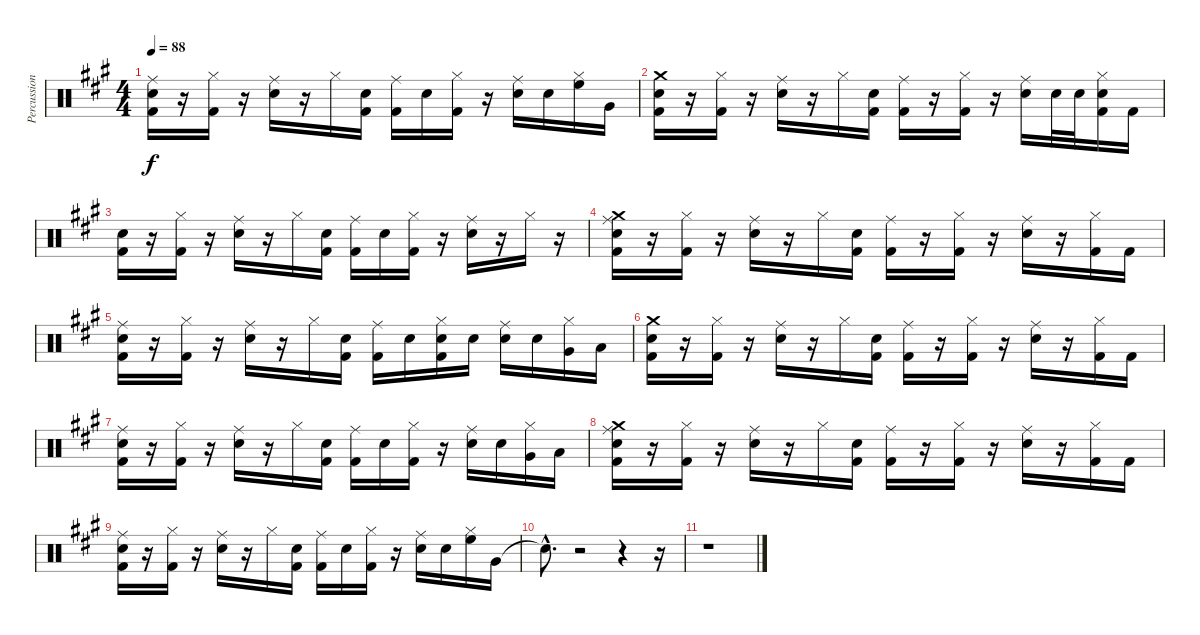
\track ("Percussion" "Percussion") {instrument percussion}
\staff {score}
\articulation defaults
\ts (4 4)
\tempo 88
\clef neutral
\ks f#minor
("Ride (middle)" "Kick (hit) 2" "Snare (hit) 2").16{dy f} r.16 ("Hi-Hat (closed)" "Kick (hit) 2").16 r.16 ("Ride (middle)" "Snare (hit) 2").16 r.16 "Hi-Hat (closed)".16 ("Snare (hit) 2" "Kick (hit) 2").16 ("Ride (middle)" "Kick (hit) 2").16 "Snare (hit) 2".16 ("Hi-Hat (closed)" "Kick (hit) 2").16 r.16 ("Snare (hit) 2" "Ride (middle)").16 "Snare (hit) 2".16 ("High Floor Tom (hit)" "Hi-Hat (closed)").16 "Very Low Tom (hit)".16 |
("Crash medium (hit)" "Snare (hit) 2" "Kick (hit) 2").16 r.16 ("Kick (hit) 2" "Hi-Hat (closed)").16 r.16 ("Ride (middle)" "Snare (hit) 2").16 r.16 "Hi-Hat (closed)".16 ("Snare (hit) 2" "Kick (hit) 2").16 ("Ride (middle)" "Kick (hit) 2").16 r.16 ("Hi-Hat (closed)" "Kick (hit) 2").16 r.16 ("Snare (hit) 2" "Ride (middle)").16 "Snare (hit) 2".32 "Snare (hit) 2".32 ("Snare (hit) 2" "Kick (hit) 2" "Hi-Hat (closed)").16 "Kick (hit) 2".16 |
("Snare (hit) 2" "Kick (hit) 2").16 r.16 ("Hi-Hat (closed)" "Kick (hit) 2").16 r.16 ("Ride (middle)" "Snare (hit) 2").16 r.16 "Hi-Hat (closed)".16 ("Snare (hit) 2" "Kick (hit) 2").16 ("Kick (hit) 2" "Ride (middle)").16 "Snare (hit) 2".16 ("Hi-Hat (closed)" "Kick (hit) 2").16 r.16 ("Snare (hit) 2" "Ride (middle)").16 r.16 "Hi-Hat (closed)".16 r.16 |
("Ride (middle)" "Kick (hit) 2" "Crash medium (hit)" "Snare (hit) 2").16 r.16 ("Kick (hit) 2" "Hi-Hat (closed)").16 r.16 ("Ride (middle)" "Snare (hit) 2").16 r.16 "Hi-Hat (closed)".16 ("Snare (hit) 2" "Kick (hit) 2").16 ("Kick (hit) 2" "Ride (middle)").16 r.16 ("Hi-Hat (closed)" "Kick (hit) 2").16 r.16 ("Snare (hit) 2" "Ride (middle)").16 r.16 ("Kick (hit) 2" "Hi-Hat (closed)").16 "Kick (hit) 2".16 |
("Ride (middle)" "Kick (hit) 2" "Snare (hit) 2").16 r.16 ("Hi-Hat (closed)" "Kick (hit) 2").16 r.16 ("Ride (middle)" "Snare (hit) 2").16 r.16 "Hi-Hat (closed)".16 ("Snare (hit) 2" "Kick (hit) 2").16 ("Ride (middle)" "Kick (hit) 2").16 "Snare (hit) 2".16 ("Snare (hit) 2" "Hi-Hat (closed)" "Kick (hit) 2").16 "Snare (hit) 2".16 ("Snare (hit) 2" "Ride (middle)").16 "Snare (hit) 2".16 ("Very Low Tom (hit)" "Hi-Hat (closed)").16 "Low Floor Tom (hit)".16 |
("Crash medium (hit)" "Snare (hit) 2" "Kick (hit) 2").16 r.16 ("Kick (hit) 2" "Hi-Hat (closed)").16 r.16 ("Ride (middle)" "Snare (hit) 2").16 r.16 "Hi-Hat (closed)".16 ("Snare (hit) 2" "Kick (hit) 2").16 ("Ride (middle)" "Kick (hit) 2").16 r.16 ("Hi-Hat (closed)" "Kick (hit) 2").16 r.16 ("Snare (hit) 2" "Ride (middle)").16 r.16 ("Kick (hit) 2" "Hi-Hat (closed)").16 "Kick (hit) 2".16 |
("Ride (middle)" "Snare (hit) 2" "Kick (hit) 2").16 r.16 ("Hi-Hat (closed)" "Kick (hit) 2").16 r.16 ("Ride (middle)" "Snare (hit) 2").16 r.16 "Hi-Hat (closed)".16 ("Snare (hit) 2" "Kick (hit) 2").16 ("Kick (hit) 2" "Ride (middle)").16 "Snare (hit) 2".16 ("Hi-Hat (closed)" "Kick (hit) 2").16 r.16 ("Snare (hit) 2" "Ride (middle)").16 "Snare (hit) 2".16 ("Hi-Hat (closed)" "Very Low Tom (hit)").16 "Low Floor Tom (hit)".16 |
("Crash medium (hit)" "Snare (hit) 2" "Ride (middle)" "Kick (hit) 2").16 r.16 ("Kick (hit) 2" "Hi-Hat (closed)").16 r.16 ("Ride (middle)" "Snare (hit) 2").16 r.16 "Hi-Hat (closed)".16 ("Snare (hit) 2" "Kick (hit) 2").16 ("Kick (hit) 2" "Ride (middle)").16 r.16 ("Hi-Hat (closed)" "Kick (hit) 2").16 r.16 ("Snare (hit) 2" "Ride (middle)").16 r.16 ("Kick (hit) 2" "Hi-Hat (closed)").16 "Kick (hit) 2".16 |
("Ride (middle)" "Kick (hit) 2" "Snare (hit) 2").16 r.16 ("Hi-Hat (closed)" "Kick (hit) 2").16 r.16 ("Ride (middle)" "Snare (hit) 2").16 r.16 "Hi-Hat (closed)".16 ("Snare (hit) 2" "Kick (hit) 2").16 ("Ride (middle)" "Kick (hit) 2").16 "Snare (hit) 2".16 ("Hi-Hat (closed)" "Kick (hit) 2").16 r.16 ("Snare (hit) 2" "Ride (middle)").16 "Snare (hit) 2".16 ("High Floor Tom (hit)" "Hi-Hat (closed)").16 "Very Low Tom (hit)".16 |
"Snare (hit)"{hac t}.8{d} r.2 r.4 r.16 |
r.1
